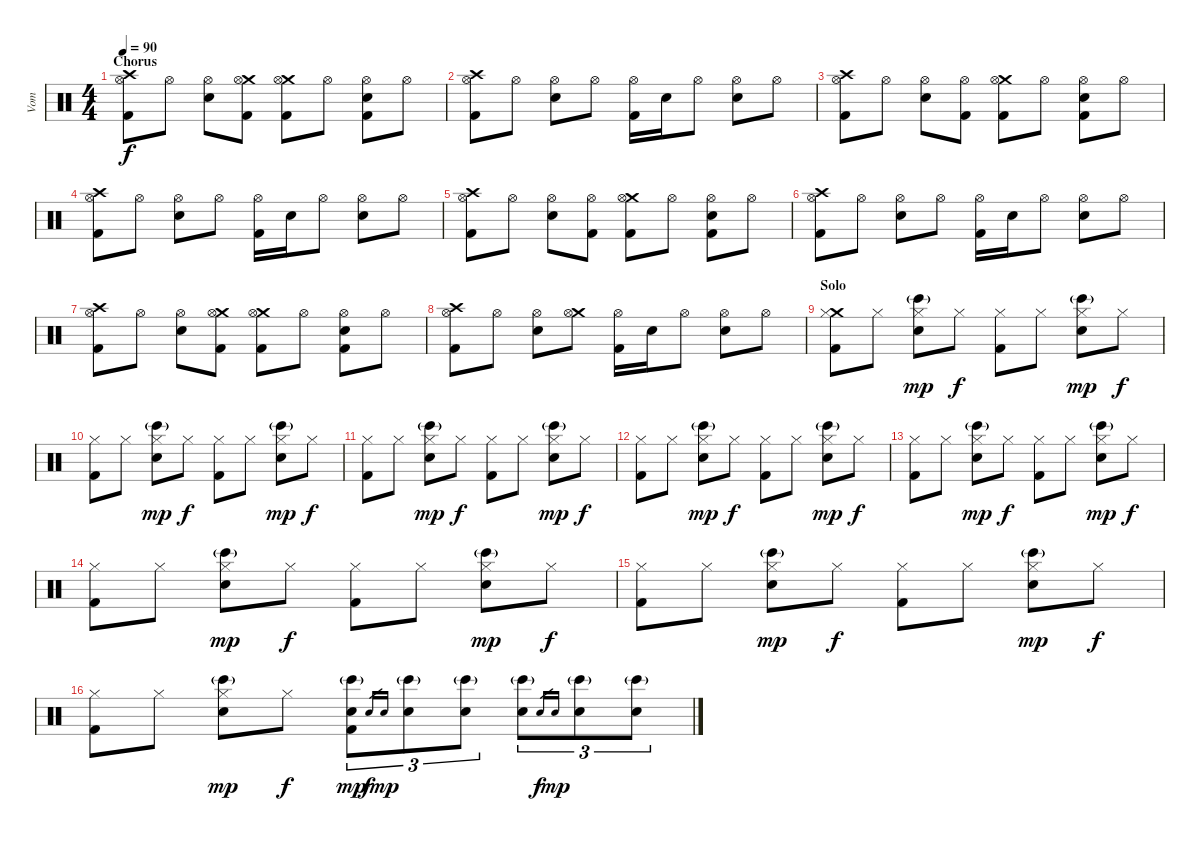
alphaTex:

\track ("Vom" "Vom") {instrument percussion}
\staff {score}
\articulation defaults
\ts (4 4)
\section ("" "Chorus")
\tempo 90
\clef neutral
\ks c
("Crash high (hit)" "Hi-Hat (open)" "Kick (hit) 2").8{dy f} "Hi-Hat (open)".8 ("Hi-Hat (open)" "Snare (hit) 2").8 ("Crash medium (hit)" "Hi-Hat (open)" "Kick (hit) 2").8 ("Crash medium (hit)" "Hi-Hat (open)" "Kick (hit) 2").8 "Hi-Hat (open)".8 ("Hi-Hat (open)" "Snare (hit) 2" "Kick (hit) 2").8 "Hi-Hat (open)".8 |
("Crash high (hit)" "Hi-Hat (open)" "Kick (hit) 2").8 "Hi-Hat (open)".8 ("Hi-Hat (open)" "Snare (hit) 2").8 "Hi-Hat (open)".8 ("Hi-Hat (open)" "Kick (hit) 2").16 "Snare (hit) 2".16 "Hi-Hat (open)".8 ("Hi-Hat (open)" "Snare (hit) 2").8 "Hi-Hat (open)".8 |
("Crash high (hit)" "Hi-Hat (open)" "Kick (hit) 2").8 "Hi-Hat (open)".8 ("Hi-Hat (open)" "Snare (hit) 2").8 ("Hi-Hat (open)" "Kick (hit) 2").8 ("Crash medium (hit)" "Hi-Hat (open)" "Kick (hit) 2").8 "Hi-Hat (open)".8 ("Hi-Hat (open)" "Snare (hit) 2" "Kick (hit) 2").8 "Hi-Hat (open)".8 |
("Crash high (hit)" "Hi-Hat (open)" "Kick (hit) 2").8 "Hi-Hat (open)".8 ("Hi-Hat (open)" "Snare (hit) 2").8 "Hi-Hat (open)".8 ("Hi-Hat (open)" "Kick (hit) 2").16 "Snare (hit) 2".16 "Hi-Hat (open)".8 ("Hi-Hat (open)" "Snare (hit) 2").8 "Hi-Hat (open)".8 |
("Crash high (hit)" "Hi-Hat (open)" "Kick (hit) 2").8 "Hi-Hat (open)".8 ("Hi-Hat (open)" "Snare (hit) 2").8 ("Hi-Hat (open)" "Kick (hit) 2").8 ("Crash medium (hit)" "Hi-Hat (open)" "Kick (hit) 2").8 "Hi-Hat (open)".8 ("Hi-Hat (open)" "Snare (hit) 2" "Kick (hit) 2").8 "Hi-Hat (open)".8 |
("Crash high (hit)" "Hi-Hat (open)" "Kick (hit) 2").8 "Hi-Hat (open)".8 ("Hi-Hat (open)" "Snare (hit) 2").8 "Hi-Hat (open)".8 ("Hi-Hat (open)" "Kick (hit) 2").16 "Snare (hit) 2".16 "Hi-Hat (open)".8 ("Hi-Hat (open)" "Snare (hit) 2").8 "Hi-Hat (open)".8 |
("Crash high (hit)" "Hi-Hat (open)" "Kick (hit) 2").8 "Hi-Hat (open)".8 ("Hi-Hat (open)" "Snare (hit) 2").8 ("Crash medium (hit)" "Hi-Hat (open)" "Kick (hit) 2").8 ("Crash medium (hit)" "Hi-Hat (open)" "Kick (hit) 2").8 "Hi-Hat (open)".8 ("Hi-Hat (open)" "Snare (hit) 2" "Kick (hit) 2").8 "Hi-Hat (open)".8 |
("Crash high (hit)" "Hi-Hat (open)" "Kick (hit) 2").8 "Hi-Hat (open)".8 ("Hi-Hat (open)" "Snare (hit) 2").8 ("Crash medium (hit)" "Hi-Hat (open)").8 ("Hi-Hat (open)" "Kick (hit) 2").16 "Snare (hit) 2".16 "Hi-Hat (open)".8 ("Hi-Hat (open)" "Snare (hit) 2").8 "Hi-Hat (open)".8 |
\section ("" "Solo")
("Crash medium (hit)" "Hi-Hat (closed)" "Kick (hit) 2").8 "Hi-Hat (closed)".8 ("Hi-Hat (closed)" "Snare (hit) 2" "Bongo High (hit)"{g}).8{dy mp} "Hi-Hat (closed)".8{dy f} ("Hi-Hat (closed)" "Kick (hit) 2").8 "Hi-Hat (closed)".8 ("Hi-Hat (closed)" "Snare (hit) 2" "Bongo High (hit)"{g}).8{dy mp} "Hi-Hat (closed)".8{dy f} |
("Hi-Hat (closed)" "Kick (hit) 2").8 "Hi-Hat (closed)".8 ("Hi-Hat (closed)" "Snare (hit) 2" "Bongo High (hit)"{g}).8{dy mp} "Hi-Hat (closed)".8{dy f} ("Hi-Hat (closed)" "Kick (hit) 2").8 "Hi-Hat (closed)".8 ("Hi-Hat (closed)" "Snare (hit) 2" "Bongo High (hit)"{g}).8{dy mp} "Hi-Hat (closed)".8{dy f} |
("Hi-Hat (closed)" "Kick (hit) 2").8 "Hi-Hat (closed)".8 ("Hi-Hat (closed)" "Snare (hit) 2" "Bongo High (hit)"{g}).8{dy mp} "Hi-Hat (closed)".8{dy f} ("Hi-Hat (closed)" "Kick (hit) 2").8 "Hi-Hat (closed)".8 ("Hi-Hat (closed)" "Snare (hit) 2" "Bongo High (hit)"{g}).8{dy mp} "Hi-Hat (closed)".8{dy f} |
("Hi-Hat (closed)" "Kick (hit) 2").8 "Hi-Hat (closed)".8 ("Hi-Hat (closed)" "Snare (hit) 2" "Bongo High (hit)"{g}).8{dy mp} "Hi-Hat (closed)".8{dy f} ("Hi-Hat (closed)" "Kick (hit) 2").8 "Hi-Hat (closed)".8 ("Hi-Hat (closed)" "Snare (hit) 2" "Bongo High (hit)"{g}).8{dy mp} "Hi-Hat (closed)".8{dy f} |
("Hi-Hat (closed)" "Kick (hit) 2").8 "Hi-Hat (closed)".8 ("Hi-Hat (closed)" "Snare (hit) 2" "Bongo High (hit)"{g}).8{dy mp} "Hi-Hat (closed)".8{dy f} ("Hi-Hat (closed)" "Kick (hit) 2").8 "Hi-Hat (closed)".8 ("Hi-Hat (closed)" "Snare (hit) 2" "Bongo High (hit)"{g}).8{dy mp} "Hi-Hat (closed)".8{dy f} |
("Hi-Hat (closed)" "Kick (hit) 2").8 "Hi-Hat (closed)".8 ("Hi-Hat (closed)" "Snare (hit) 2" "Bongo High (hit)"{g}).8{dy mp} "Hi-Hat (closed)".8{dy f} ("Hi-Hat (closed)" "Kick (hit) 2").8 "Hi-Hat (closed)".8 ("Hi-Hat (closed)" "Snare (hit) 2" "Bongo High (hit)"{g}).8{dy mp} "Hi-Hat (closed)".8{dy f} |
("Hi-Hat (closed)" "Kick (hit) 2").8 "Hi-Hat (closed)".8 ("Hi-Hat (closed)" "Snare (hit) 2" "Bongo High (hit)"{g}).8{dy mp} "Hi-Hat (closed)".8{dy f} ("Hi-Hat (closed)" "Kick (hit) 2").8 "Hi-Hat (closed)".8 ("Hi-Hat (closed)" "Snare (hit) 2" "Bongo High (hit)"{g}).8{dy mp} "Hi-Hat (closed)".8{dy f} |
("Hi-Hat (closed)" "Kick (hit) 2").8 "Hi-Hat (closed)".8 ("Hi-Hat (closed)" "Snare (hit) 2" "Bongo High (hit)"{g}).8{dy mp} "Hi-Hat (closed)".8{dy f} ("Snare (hit) 2" "Bongo High (hit)"{g} "Kick (hit) 2").8{tu (3 2) dy mp} "Snare (hit) 2".16{gr dy f} "Snare (hit)".16{gr dy mp} ("Snare (hit) 2" "Bongo High (hit)"{g}).8{tu (3 2)} ("Snare (hit) 2" "Bongo High (hit)"{g}).8{tu (3 2)} ("Snare (hit) 2" "Bongo High (hit)"{g}).8{tu (3 2)} "Snare (hit) 2".16{gr dy f} "Snare (hit)".16{gr dy mp} ("Snare (hit) 2" "Bongo High (hit)"{g}).8{tu (3 2)} ("Snare (hit) 2" "Bongo High (hit)"{g}).8{tu (3 2)}
